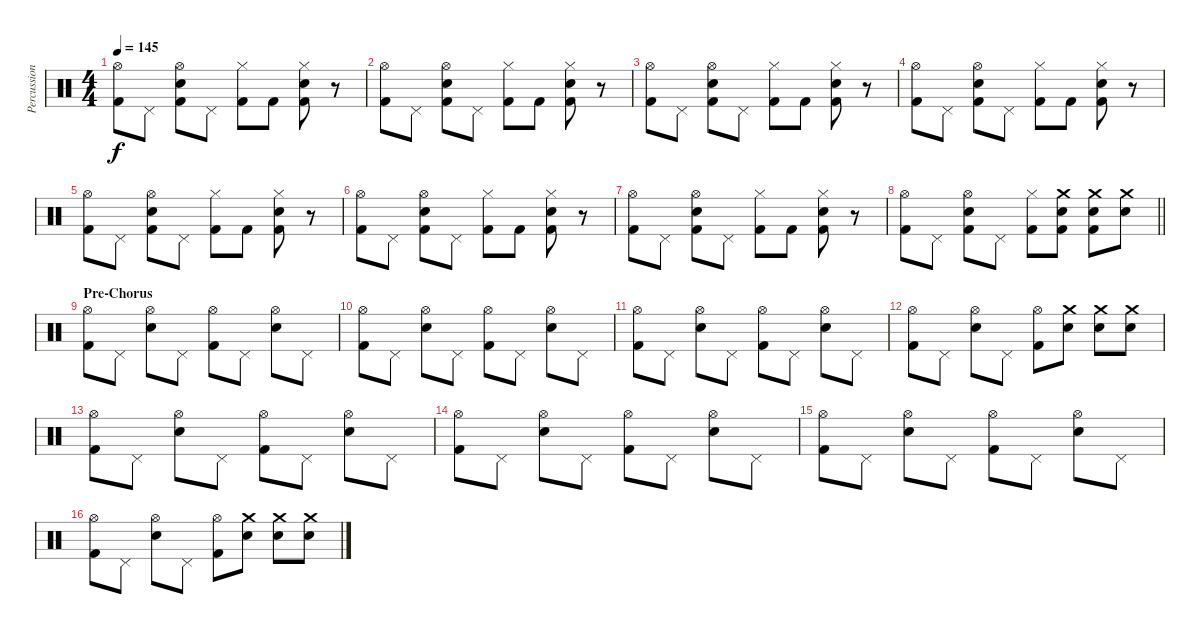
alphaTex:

\track ("Percussion" "Percussion") {instrument percussion}
\staff {score}
\articulation defaults
\ts (4 4)
\tempo 145
\clef neutral
\ks c
("Hi-Hat (open)" "Kick (hit) 2").8{dy f} "Pedal Hi-Hat (hit)".8 ("Hi-Hat (open)" "Snare (hit) 2" "Kick (hit) 2").8 "Pedal Hi-Hat (hit)".8 ("Hi-Hat (closed)" "Kick (hit) 2").8 "Kick (hit) 2".8 ("Hi-Hat (closed)" "Snare (hit) 2" "Kick (hit) 2").8 r.8 |
("Hi-Hat (open)" "Kick (hit) 2").8 "Pedal Hi-Hat (hit)".8 ("Hi-Hat (open)" "Snare (hit) 2" "Kick (hit) 2").8 "Pedal Hi-Hat (hit)".8 ("Hi-Hat (closed)" "Kick (hit) 2").8 "Kick (hit) 2".8 ("Hi-Hat (closed)" "Snare (hit) 2" "Kick (hit) 2").8 r.8 |
("Hi-Hat (open)" "Kick (hit) 2").8 "Pedal Hi-Hat (hit)".8 ("Hi-Hat (open)" "Snare (hit) 2" "Kick (hit) 2").8 "Pedal Hi-Hat (hit)".8 ("Hi-Hat (closed)" "Kick (hit) 2").8 "Kick (hit) 2".8 ("Hi-Hat (closed)" "Snare (hit) 2" "Kick (hit) 2").8 r.8 |
("Hi-Hat (open)" "Kick (hit) 2").8 "Pedal Hi-Hat (hit)".8 ("Hi-Hat (open)" "Snare (hit) 2" "Kick (hit) 2").8 "Pedal Hi-Hat (hit)".8 ("Hi-Hat (closed)" "Kick (hit) 2").8 "Kick (hit) 2".8 ("Hi-Hat (closed)" "Snare (hit) 2" "Kick (hit) 2").8 r.8 |
("Hi-Hat (open)" "Kick (hit) 2").8 "Pedal Hi-Hat (hit)".8 ("Hi-Hat (open)" "Snare (hit) 2" "Kick (hit) 2").8 "Pedal Hi-Hat (hit)".8 ("Hi-Hat (closed)" "Kick (hit) 2").8 "Kick (hit) 2".8 ("Hi-Hat (closed)" "Snare (hit) 2" "Kick (hit) 2").8 r.8 |
("Hi-Hat (open)" "Kick (hit) 2").8 "Pedal Hi-Hat (hit)".8 ("Hi-Hat (open)" "Snare (hit) 2" "Kick (hit) 2").8 "Pedal Hi-Hat (hit)".8 ("Hi-Hat (closed)" "Kick (hit) 2").8 "Kick (hit) 2".8 ("Hi-Hat (closed)" "Snare (hit) 2" "Kick (hit) 2").8 r.8 |
("Hi-Hat (open)" "Kick (hit) 2").8 "Pedal Hi-Hat (hit)".8 ("Hi-Hat (open)" "Snare (hit) 2" "Kick (hit) 2").8 "Pedal Hi-Hat (hit)".8 ("Hi-Hat (closed)" "Kick (hit) 2").8 "Kick (hit) 2".8 ("Hi-Hat (closed)" "Snare (hit) 2" "Kick (hit) 2").8 r.8 |
\barLineRight lightlight
("Hi-Hat (open)" "Kick (hit) 2").8 "Pedal Hi-Hat (hit)".8 ("Hi-Hat (open)" "Snare (hit) 2" "Kick (hit) 2").8 "Pedal Hi-Hat (hit)".8 ("Hi-Hat (closed)" "Kick (hit) 2").8 ("Crash medium (hit)" "Snare (hit) 2" "Kick (hit) 2").8 ("Crash medium (hit)" "Snare (hit) 2" "Kick (hit) 2").8 ("Crash medium (hit)" "Snare (hit) 2").8 |
\section ("" "Pre-Chorus")
("Hi-Hat (open)" "Kick (hit) 2").8 "Pedal Hi-Hat (hit)".8 ("Hi-Hat (open)" "Snare (hit) 2").8 "Pedal Hi-Hat (hit)".8 ("Hi-Hat (open)" "Kick (hit) 2").8 "Pedal Hi-Hat (hit)".8 ("Hi-Hat (open)" "Snare (hit) 2").8 "Pedal Hi-Hat (hit)".8 |
("Hi-Hat (open)" "Kick (hit) 2").8 "Pedal Hi-Hat (hit)".8 ("Hi-Hat (open)" "Snare (hit) 2").8 "Pedal Hi-Hat (hit)".8 ("Hi-Hat (open)" "Kick (hit) 2").8 "Pedal Hi-Hat (hit)".8 ("Hi-Hat (open)" "Snare (hit) 2").8 "Pedal Hi-Hat (hit)".8 |
("Hi-Hat (open)" "Kick (hit) 2").8 "Pedal Hi-Hat (hit)".8 ("Hi-Hat (open)" "Snare (hit) 2").8 "Pedal Hi-Hat (hit)".8 ("Hi-Hat (open)" "Kick (hit) 2").8 "Pedal Hi-Hat (hit)".8 ("Hi-Hat (open)" "Snare (hit) 2").8 "Pedal Hi-Hat (hit)".8 |
("Hi-Hat (open)" "Kick (hit) 2").8 "Pedal Hi-Hat (hit)".8 ("Hi-Hat (open)" "Snare (hit) 2").8 "Pedal Hi-Hat (hit)".8 ("Hi-Hat (open)" "Kick (hit) 2").8 ("Crash medium (hit)" "Snare (hit) 2").8 ("Crash medium (hit)" "Snare (hit) 2").8 ("Crash medium (hit)" "Snare (hit) 2").8 |
("Hi-Hat (open)" "Kick (hit) 2").8 "Pedal Hi-Hat (hit)".8 ("Hi-Hat (open)" "Snare (hit) 2").8 "Pedal Hi-Hat (hit)".8 ("Hi-Hat (open)" "Kick (hit) 2").8 "Pedal Hi-Hat (hit)".8 ("Hi-Hat (open)" "Snare (hit) 2").8 "Pedal Hi-Hat (hit)".8 |
("Hi-Hat (open)" "Kick (hit) 2").8 "Pedal Hi-Hat (hit)".8 ("Hi-Hat (open)" "Snare (hit) 2").8 "Pedal Hi-Hat (hit)".8 ("Hi-Hat (open)" "Kick (hit) 2").8 "Pedal Hi-Hat (hit)".8 ("Hi-Hat (open)" "Snare (hit) 2").8 "Pedal Hi-Hat (hit)".8 |
("Hi-Hat (open)" "Kick (hit) 2").8 "Pedal Hi-Hat (hit)".8 ("Hi-Hat (open)" "Snare (hit) 2").8 "Pedal Hi-Hat (hit)".8 ("Hi-Hat (open)" "Kick (hit) 2").8 "Pedal Hi-Hat (hit)".8 ("Hi-Hat (open)" "Snare (hit) 2").8 "Pedal Hi-Hat (hit)".8 |
("Hi-Hat (open)" "Kick (hit) 2").8 "Pedal Hi-Hat (hit)".8 ("Hi-Hat (open)" "Snare (hit) 2").8 "Pedal Hi-Hat (hit)".8 ("Hi-Hat (open)" "Kick (hit) 2").8 ("Crash medium (hit)" "Snare (hit) 2").8 ("Crash medium (hit)" "Snare (hit) 2").8 ("Crash medium (hit)" "Snare (hit) 2").8
